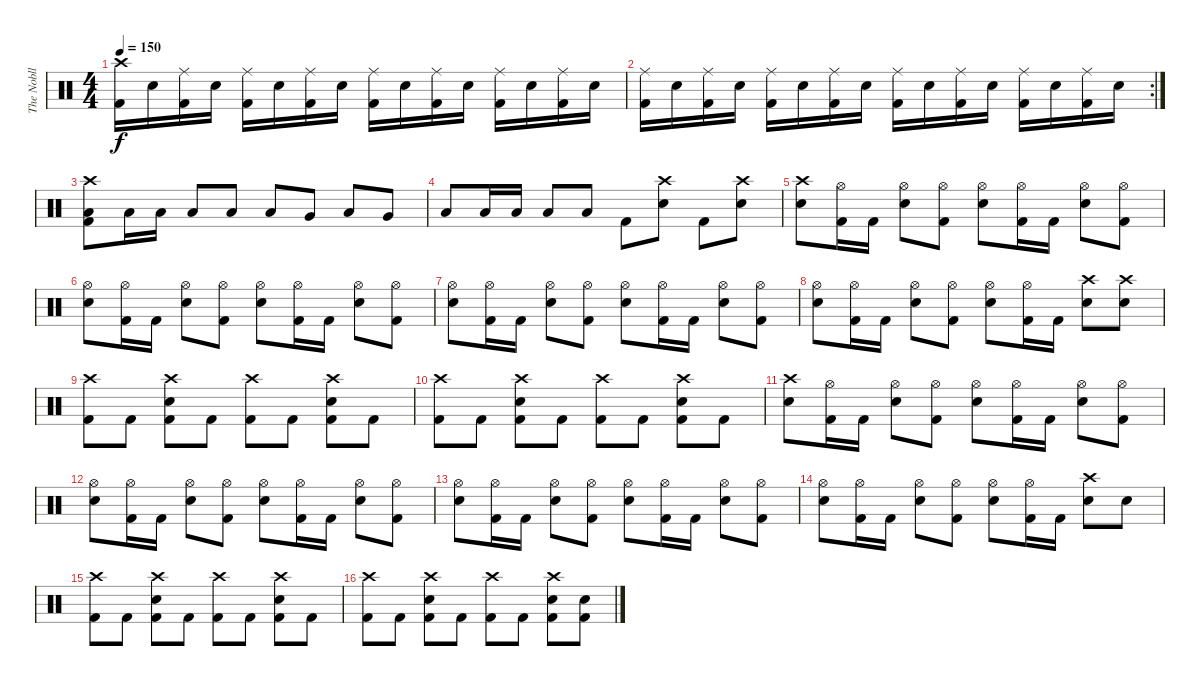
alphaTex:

\track ("The Nobll" "The Nobll") {instrument percussion}
\staff {score}
\articulation defaults
\ts (4 4)
\tempo 150
\clef neutral
\ks c
("Crash high (hit)" "Kick (hit) 2").16{dy f} "Snare (hit) 2".16 ("Ride (middle)" "Kick (hit) 2").16 "Snare (hit) 2".16 ("Ride (middle)" "Kick (hit) 2").16 "Snare (hit) 2".16 ("Ride (middle)" "Kick (hit) 2").16 "Snare (hit) 2".16 ("Ride (middle)" "Kick (hit) 2").16 "Snare (hit) 2".16 ("Ride (middle)" "Kick (hit) 2").16 "Snare (hit) 2".16 ("Ride (middle)" "Kick (hit) 2").16 "Snare (hit) 2".16 ("Ride (middle)" "Kick (hit) 2").16 "Snare (hit) 2".16 |
\rc 2
("Ride (middle)" "Kick (hit) 2").16 "Snare (hit) 2".16 ("Ride (middle)" "Kick (hit) 2").16 "Snare (hit) 2".16 ("Ride (middle)" "Kick (hit) 2").16 "Snare (hit) 2".16 ("Ride (middle)" "Kick (hit) 2").16 "Snare (hit) 2".16 ("Ride (middle)" "Kick (hit) 2").16 "Snare (hit) 2".16 ("Ride (middle)" "Kick (hit) 2").16 "Snare (hit) 2".16 ("Ride (middle)" "Kick (hit) 2").16 "Snare (hit) 2".16 ("Ride (middle)" "Kick (hit) 2").16 "Snare (hit) 2".16 |
("Crash high (hit)" "Low Floor Tom (hit)" "Kick (hit) 2").8 "Low Floor Tom (hit)".16 "Low Floor Tom (hit)".16 "Low Floor Tom (hit)".8 "Low Floor Tom (hit)".8 "Low Floor Tom (hit)".8 "Very Low Tom (hit)".8 "Low Floor Tom (hit)".8 "Very Low Tom (hit)".8 |
"Low Floor Tom (hit)".8 "Low Floor Tom (hit)".16 "Low Floor Tom (hit)".16 "Low Floor Tom (hit)".8 "Low Floor Tom (hit)".8 "Kick (hit) 2".8 ("Crash high (hit)" "Snare (hit) 2").8 "Kick (hit) 2".8 ("Crash high (hit)" "Snare (hit) 2").8 |
("Crash high (hit)" "Snare (hit) 2").8 ("Hi-Hat (open)" "Kick (hit) 2").16 "Kick (hit) 2".16 ("Hi-Hat (open)" "Snare (hit) 2").8 ("Hi-Hat (open)" "Kick (hit) 2").8 ("Hi-Hat (open)" "Snare (hit) 2").8 ("Hi-Hat (open)" "Kick (hit) 2").16 "Kick (hit) 2".16 ("Hi-Hat (open)" "Snare (hit) 2").8 ("Hi-Hat (open)" "Kick (hit) 2").8 |
("Hi-Hat (open)" "Snare (hit) 2").8 ("Hi-Hat (open)" "Kick (hit) 2").16 "Kick (hit) 2".16 ("Hi-Hat (open)" "Snare (hit) 2").8 ("Hi-Hat (open)" "Kick (hit) 2").8 ("Hi-Hat (open)" "Snare (hit) 2").8 ("Hi-Hat (open)" "Kick (hit) 2").16 "Kick (hit) 2".16 ("Hi-Hat (open)" "Snare (hit) 2").8 ("Hi-Hat (open)" "Kick (hit) 2").8 |
("Hi-Hat (open)" "Snare (hit) 2").8 ("Hi-Hat (open)" "Kick (hit) 2").16 "Kick (hit) 2".16 ("Hi-Hat (open)" "Snare (hit) 2").8 ("Hi-Hat (open)" "Kick (hit) 2").8 ("Hi-Hat (open)" "Snare (hit) 2").8 ("Hi-Hat (open)" "Kick (hit) 2").16 "Kick (hit) 2".16 ("Hi-Hat (open)" "Snare (hit) 2").8 ("Hi-Hat (open)" "Kick (hit) 2").8 |
("Hi-Hat (open)" "Snare (hit) 2").8 ("Hi-Hat (open)" "Kick (hit) 2").16 "Kick (hit) 2".16 ("Hi-Hat (open)" "Snare (hit) 2").8 ("Hi-Hat (open)" "Kick (hit) 2").8 ("Hi-Hat (open)" "Snare (hit) 2").8 ("Hi-Hat (open)" "Kick (hit) 2").16 "Kick (hit) 2".16 ("Crash high (hit)" "Snare (hit) 2").8 ("Crash high (hit)" "Snare (hit) 2").8 |
("Crash high (hit)" "Kick (hit) 2").8 "Kick (hit) 2".8 ("Crash high (hit)" "Snare (hit) 2" "Kick (hit) 2").8 "Kick (hit) 2".8 ("Crash high (hit)" "Kick (hit) 2").8 "Kick (hit) 2".8 ("Crash high (hit)" "Snare (hit) 2" "Kick (hit) 2").8 "Kick (hit) 2".8 |
("Crash high (hit)" "Kick (hit) 2").8 "Kick (hit) 2".8 ("Crash high (hit)" "Snare (hit) 2" "Kick (hit) 2").8 "Kick (hit) 2".8 ("Crash high (hit)" "Kick (hit) 2").8 "Kick (hit) 2".8 ("Crash high (hit)" "Snare (hit) 2" "Kick (hit) 2").8 "Kick (hit) 2".8 |
("Crash high (hit)" "Snare (hit) 2").8 ("Hi-Hat (open)" "Kick (hit) 2").16 "Kick (hit) 2".16 ("Hi-Hat (open)" "Snare (hit) 2").8 ("Hi-Hat (open)" "Kick (hit) 2").8 ("Hi-Hat (open)" "Snare (hit) 2").8 ("Hi-Hat (open)" "Kick (hit) 2").16 "Kick (hit) 2".16 ("Hi-Hat (open)" "Snare (hit) 2").8 ("Hi-Hat (open)" "Kick (hit) 2").8 |
("Hi-Hat (open)" "Snare (hit) 2").8 ("Hi-Hat (open)" "Kick (hit) 2").16 "Kick (hit) 2".16 ("Hi-Hat (open)" "Snare (hit) 2").8 ("Hi-Hat (open)" "Kick (hit) 2").8 ("Hi-Hat (open)" "Snare (hit) 2").8 ("Hi-Hat (open)" "Kick (hit) 2").16 "Kick (hit) 2".16 ("Hi-Hat (open)" "Snare (hit) 2").8 ("Hi-Hat (open)" "Kick (hit) 2").8 |
("Hi-Hat (open)" "Snare (hit) 2").8 ("Hi-Hat (open)" "Kick (hit) 2").16 "Kick (hit) 2".16 ("Hi-Hat (open)" "Snare (hit) 2").8 ("Hi-Hat (open)" "Kick (hit) 2").8 ("Hi-Hat (open)" "Snare (hit) 2").8 ("Hi-Hat (open)" "Kick (hit) 2").16 "Kick (hit) 2".16 ("Hi-Hat (open)" "Snare (hit) 2").8 ("Hi-Hat (open)" "Kick (hit) 2").8 |
("Hi-Hat (open)" "Snare (hit) 2").8 ("Hi-Hat (open)" "Kick (hit) 2").16 "Kick (hit) 2".16 ("Hi-Hat (open)" "Snare (hit) 2").8 ("Hi-Hat (open)" "Kick (hit) 2").8 ("Hi-Hat (open)" "Snare (hit) 2").8 ("Hi-Hat (open)" "Kick (hit) 2").16 "Kick (hit) 2".16 ("Crash high (hit)" "Snare (hit) 2").8 "Snare (hit) 2".8 |
("Crash high (hit)" "Kick (hit) 2").8 "Kick (hit) 2".8 ("Crash high (hit)" "Snare (hit) 2" "Kick (hit) 2").8 "Kick (hit) 2".8 ("Crash high (hit)" "Kick (hit) 2").8 "Kick (hit) 2".8 ("Crash high (hit)" "Snare (hit) 2" "Kick (hit) 2").8 "Kick (hit) 2".8 |
("Crash high (hit)" "Kick (hit) 2").8 "Kick (hit) 2".8 ("Crash high (hit)" "Snare (hit) 2" "Kick (hit) 2").8 "Kick (hit) 2".8 ("Crash high (hit)" "Kick (hit) 2").8 "Kick (hit) 2".8 ("Crash high (hit)" "Snare (hit) 2" "Kick (hit) 2").8 ("Snare (hit) 2" "Kick (hit) 2").8
